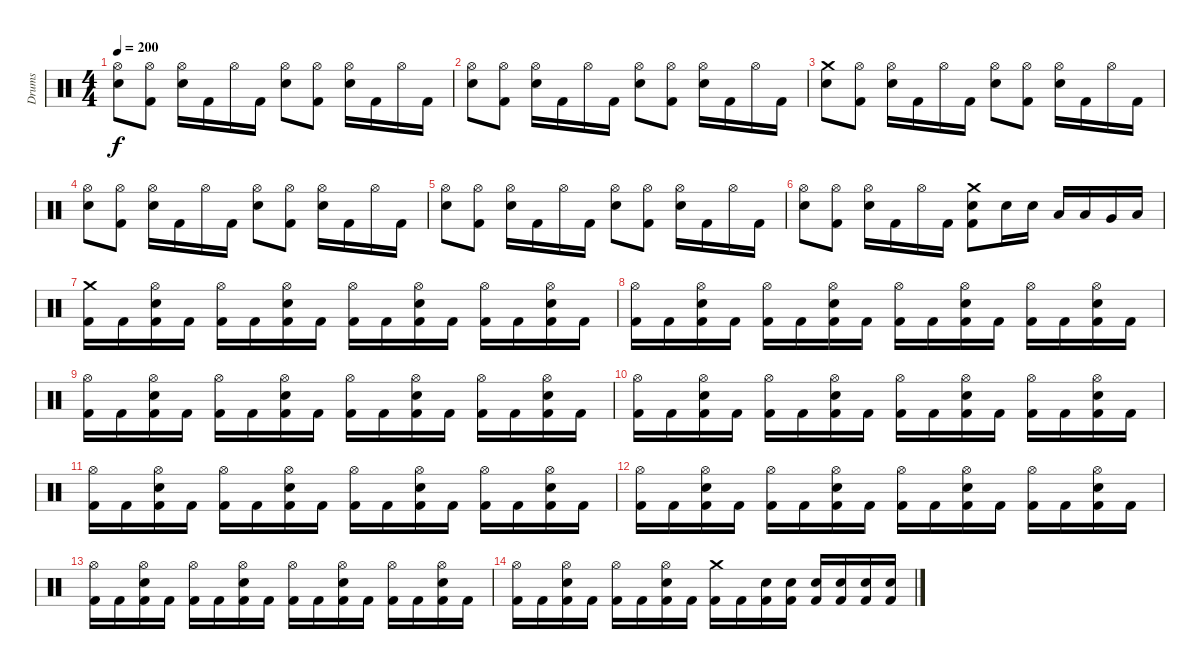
\track ("Drums" "Drums") {instrument percussion}
\staff {score}
\articulation defaults
\ts (4 4)
\tempo 200
\clef neutral
\ks c
("Hi-Hat (open)" "Snare (hit) 2").8{dy f} ("Hi-Hat (open)" "Kick (hit) 2").8 ("Hi-Hat (open)" "Snare (hit) 2").16 "Kick (hit) 2".16 "Hi-Hat (open)".16 "Kick (hit) 2".16 ("Hi-Hat (open)" "Snare (hit) 2").8 ("Hi-Hat (open)" "Kick (hit) 2").8 ("Hi-Hat (open)" "Snare (hit) 2").16 "Kick (hit) 2".16 "Hi-Hat (open)".16 "Kick (hit) 2".16 |
("Hi-Hat (open)" "Snare (hit) 2").8 ("Hi-Hat (open)" "Kick (hit) 2").8 ("Hi-Hat (open)" "Snare (hit) 2").16 "Kick (hit) 2".16 "Hi-Hat (open)".16 "Kick (hit) 2".16 ("Hi-Hat (open)" "Snare (hit) 2").8 ("Hi-Hat (open)" "Kick (hit) 2").8 ("Hi-Hat (open)" "Snare (hit) 2").16 "Kick (hit) 2".16 "Hi-Hat (open)".16 "Kick (hit) 2".16 |
("Crash medium (hit)" "Snare (hit) 2").8 ("Hi-Hat (open)" "Kick (hit) 2").8 ("Hi-Hat (open)" "Snare (hit) 2").16 "Kick (hit) 2".16 "Hi-Hat (open)".16 "Kick (hit) 2".16 ("Hi-Hat (open)" "Snare (hit) 2").8 ("Hi-Hat (open)" "Kick (hit) 2").8 ("Hi-Hat (open)" "Snare (hit) 2").16 "Kick (hit) 2".16 "Hi-Hat (open)".16 "Kick (hit) 2".16 |
("Hi-Hat (open)" "Snare (hit) 2").8 ("Hi-Hat (open)" "Kick (hit) 2").8 ("Hi-Hat (open)" "Snare (hit) 2").16 "Kick (hit) 2".16 "Hi-Hat (open)".16 "Kick (hit) 2".16 ("Hi-Hat (open)" "Snare (hit) 2").8 ("Hi-Hat (open)" "Kick (hit) 2").8 ("Hi-Hat (open)" "Snare (hit) 2").16 "Kick (hit) 2".16 "Hi-Hat (open)".16 "Kick (hit) 2".16 |
("Hi-Hat (open)" "Snare (hit) 2").8 ("Hi-Hat (open)" "Kick (hit) 2").8 ("Hi-Hat (open)" "Snare (hit) 2").16 "Kick (hit) 2".16 "Hi-Hat (open)".16 "Kick (hit) 2".16 ("Hi-Hat (open)" "Snare (hit) 2").8 ("Hi-Hat (open)" "Kick (hit) 2").8 ("Hi-Hat (open)" "Snare (hit) 2").16 "Kick (hit) 2".16 "Hi-Hat (open)".16 "Kick (hit) 2".16 |
("Hi-Hat (open)" "Snare (hit) 2").8 ("Hi-Hat (open)" "Kick (hit) 2").8 ("Hi-Hat (open)" "Snare (hit) 2").16 "Kick (hit) 2".16 "Hi-Hat (open)".16 "Kick (hit) 2".16 ("Crash medium (hit)" "Snare (hit) 2" "Kick (hit) 2").8 "Snare (hit) 2".16 "Snare (hit) 2".16 "Low Tom (hit)".16 "Low Tom (hit)".16 "Very Low Tom (hit)".16 "Low Floor Tom (hit)".16 |
("Crash medium (hit)" "Kick (hit) 2").16 "Kick (hit) 2".16 ("Hi-Hat (open)" "Snare (hit) 2" "Kick (hit) 2").16 "Kick (hit) 2".16 ("Hi-Hat (open)" "Kick (hit) 2").16 "Kick (hit) 2".16 ("Hi-Hat (open)" "Snare (hit) 2" "Kick (hit) 2").16 "Kick (hit) 2".16 ("Hi-Hat (open)" "Kick (hit) 2").16 "Kick (hit) 2".16 ("Hi-Hat (open)" "Snare (hit) 2" "Kick (hit) 2").16 "Kick (hit) 2".16 ("Hi-Hat (open)" "Kick (hit) 2").16 "Kick (hit) 2".16 ("Hi-Hat (open)" "Snare (hit) 2" "Kick (hit) 2").16 "Kick (hit) 2".16 |
("Hi-Hat (open)" "Kick (hit) 2").16 "Kick (hit) 2".16 ("Hi-Hat (open)" "Snare (hit) 2" "Kick (hit) 2").16 "Kick (hit) 2".16 ("Hi-Hat (open)" "Kick (hit) 2").16 "Kick (hit) 2".16 ("Hi-Hat (open)" "Snare (hit) 2" "Kick (hit) 2").16 "Kick (hit) 2".16 ("Hi-Hat (open)" "Kick (hit) 2").16 "Kick (hit) 2".16 ("Hi-Hat (open)" "Snare (hit) 2" "Kick (hit) 2").16 "Kick (hit) 2".16 ("Hi-Hat (open)" "Kick (hit) 2").16 "Kick (hit) 2".16 ("Hi-Hat (open)" "Snare (hit) 2" "Kick (hit) 2").16 "Kick (hit) 2".16 |
("Hi-Hat (open)" "Kick (hit) 2").16 "Kick (hit) 2".16 ("Hi-Hat (open)" "Snare (hit) 2" "Kick (hit) 2").16 "Kick (hit) 2".16 ("Hi-Hat (open)" "Kick (hit) 2").16 "Kick (hit) 2".16 ("Hi-Hat (open)" "Snare (hit) 2" "Kick (hit) 2").16 "Kick (hit) 2".16 ("Hi-Hat (open)" "Kick (hit) 2").16 "Kick (hit) 2".16 ("Hi-Hat (open)" "Snare (hit) 2" "Kick (hit) 2").16 "Kick (hit) 2".16 ("Hi-Hat (open)" "Kick (hit) 2").16 "Kick (hit) 2".16 ("Hi-Hat (open)" "Snare (hit) 2" "Kick (hit) 2").16 "Kick (hit) 2".16 |
("Hi-Hat (open)" "Kick (hit) 2").16 "Kick (hit) 2".16 ("Hi-Hat (open)" "Snare (hit) 2" "Kick (hit) 2").16 "Kick (hit) 2".16 ("Hi-Hat (open)" "Kick (hit) 2").16 "Kick (hit) 2".16 ("Hi-Hat (open)" "Snare (hit) 2" "Kick (hit) 2").16 "Kick (hit) 2".16 ("Hi-Hat (open)" "Kick (hit) 2").16 "Kick (hit) 2".16 ("Hi-Hat (open)" "Snare (hit) 2" "Kick (hit) 2").16 "Kick (hit) 2".16 ("Hi-Hat (open)" "Kick (hit) 2").16 "Kick (hit) 2".16 ("Hi-Hat (open)" "Snare (hit) 2" "Kick (hit) 2").16 "Kick (hit) 2".16 |
("Hi-Hat (open)" "Kick (hit) 2").16 "Kick (hit) 2".16 ("Hi-Hat (open)" "Snare (hit) 2" "Kick (hit) 2").16 "Kick (hit) 2".16 ("Hi-Hat (open)" "Kick (hit) 2").16 "Kick (hit) 2".16 ("Hi-Hat (open)" "Snare (hit) 2" "Kick (hit) 2").16 "Kick (hit) 2".16 ("Hi-Hat (open)" "Kick (hit) 2").16 "Kick (hit) 2".16 ("Hi-Hat (open)" "Snare (hit) 2" "Kick (hit) 2").16 "Kick (hit) 2".16 ("Hi-Hat (open)" "Kick (hit) 2").16 "Kick (hit) 2".16 ("Hi-Hat (open)" "Snare (hit) 2" "Kick (hit) 2").16 "Kick (hit) 2".16 |
("Hi-Hat (open)" "Kick (hit) 2").16 "Kick (hit) 2".16 ("Hi-Hat (open)" "Snare (hit) 2" "Kick (hit) 2").16 "Kick (hit) 2".16 ("Hi-Hat (open)" "Kick (hit) 2").16 "Kick (hit) 2".16 ("Hi-Hat (open)" "Snare (hit) 2" "Kick (hit) 2").16 "Kick (hit) 2".16 ("Hi-Hat (open)" "Kick (hit) 2").16 "Kick (hit) 2".16 ("Hi-Hat (open)" "Snare (hit) 2" "Kick (hit) 2").16 "Kick (hit) 2".16 ("Hi-Hat (open)" "Kick (hit) 2").16 "Kick (hit) 2".16 ("Hi-Hat (open)" "Snare (hit) 2" "Kick (hit) 2").16 "Kick (hit) 2".16 |
("Hi-Hat (open)" "Kick (hit) 2").16 "Kick (hit) 2".16 ("Hi-Hat (open)" "Snare (hit) 2" "Kick (hit) 2").16 "Kick (hit) 2".16 ("Hi-Hat (open)" "Kick (hit) 2").16 "Kick (hit) 2".16 ("Hi-Hat (open)" "Snare (hit) 2" "Kick (hit) 2").16 "Kick (hit) 2".16 ("Hi-Hat (open)" "Kick (hit) 2").16 "Kick (hit) 2".16 ("Hi-Hat (open)" "Snare (hit) 2" "Kick (hit) 2").16 "Kick (hit) 2".16 ("Hi-Hat (open)" "Kick (hit) 2").16 "Kick (hit) 2".16 ("Hi-Hat (open)" "Snare (hit) 2" "Kick (hit) 2").16 "Kick (hit) 2".16 |
("Hi-Hat (open)" "Kick (hit) 2").16 "Kick (hit) 2".16 ("Hi-Hat (open)" "Snare (hit) 2" "Kick (hit) 2").16 "Kick (hit) 2".16 ("Hi-Hat (open)" "Kick (hit) 2").16 "Kick (hit) 2".16 ("Hi-Hat (open)" "Snare (hit) 2" "Kick (hit) 2").16 "Kick (hit) 2".16 ("Crash medium (hit)" "Kick (hit) 2").16 "Kick (hit) 2".16 ("Snare (hit) 2" "Kick (hit) 2").16 ("Snare (hit) 2" "Kick (hit) 2").16 ("Snare (hit) 2" "Kick (hit) 2").16 ("Snare (hit) 2" "Kick (hit) 2").16 ("Snare (hit) 2" "Kick (hit) 2").16 ("Snare (hit) 2" "Kick (hit) 2").16
